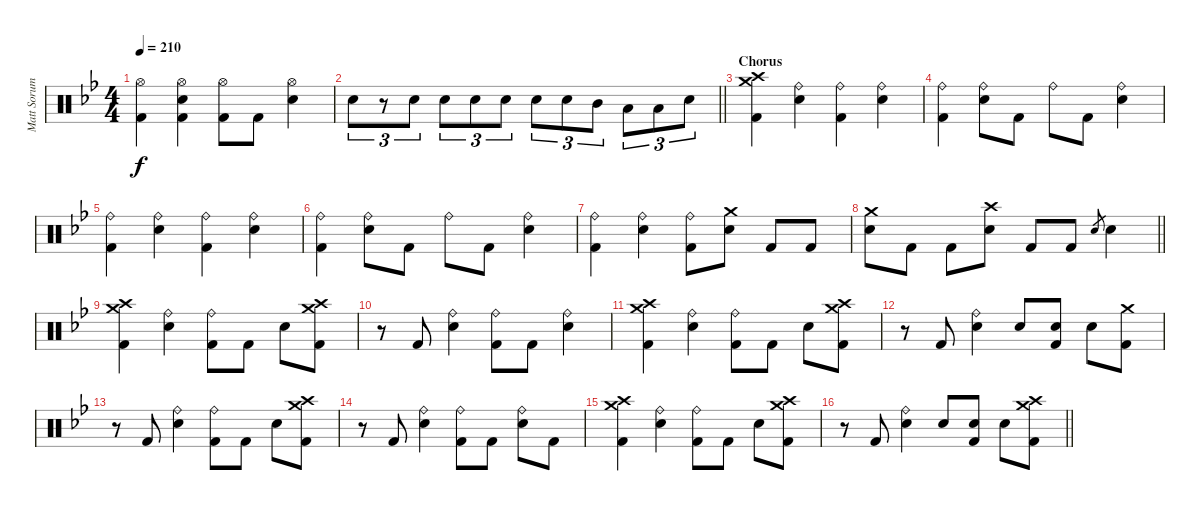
\track ("Matt Sorum - Drums" "Matt Sorum") {instrument percussion}
\staff {score}
\articulation defaults
\ts (4 4)
\tempo 210
\clef neutral
\ks bb
("Hi-Hat (open)" "Kick (hit) 2").4{dy f} ("Hi-Hat (open)" "Snare (hit) 2" "Kick (hit) 2").4 ("Hi-Hat (open)" "Kick (hit) 2").8 "Kick (hit) 2".8 ("Hi-Hat (open)" "Snare (hit) 2").4 |
\barLineRight lightlight "Snare (hit) 2".8{tu (3 2)}
r.8{tu (3 2)} "Snare (hit) 2".8{tu (3 2)} "Snare (hit) 2".8{tu (3 2)} "Snare (hit) 2".8{tu (3 2)} "Snare (hit) 2".8{tu (3 2)} "Snare (hit) 2".8{tu (3 2)} "Snare (hit) 2".8{tu (3 2)} "Mid Tom (hit)".8{tu (3 2)} "Low Tom (hit)".8{tu (3 2)} "Low Tom (hit)".8{tu (3 2)} "Snare (hit) 2".8{tu (3 2)} |
\section ("" "Chorus")
("Crash medium (hit)" "Crash high (hit)" "Kick (hit) 2").4 ("Ride (bell)" "Snare (hit) 2").4 ("Ride (bell)" "Kick (hit) 2").4 ("Ride (bell)" "Snare (hit) 2").4 |
("Ride (bell)" "Kick (hit) 2").4 ("Ride (bell)" "Snare (hit) 2").8 "Kick (hit) 2".8 "Ride (bell)".8 "Kick (hit) 2".8 ("Ride (bell)" "Snare (hit) 2").4 |
("Ride (bell)" "Kick (hit) 2").4 ("Ride (bell)" "Snare (hit) 2").4 ("Ride (bell)" "Kick (hit) 2").4 ("Ride (bell)" "Snare (hit) 2").4 |
("Ride (bell)" "Kick (hit) 2").4 ("Ride (bell)" "Snare (hit) 2").8 "Kick (hit) 2".8 "Ride (bell)".8 "Kick (hit) 2".8 ("Ride (bell)" "Snare (hit) 2").4 |
("Ride (bell)" "Kick (hit) 2").4 ("Ride (bell)" "Snare (hit) 2").4 ("Ride (bell)" "Kick (hit) 2").8 ("Crash medium (hit)" "Snare (hit) 2").8 "Kick (hit) 2".8 "Kick (hit) 2".8 |
\barLineRight lightlight
("Crash medium (hit)" "Snare (hit) 2").8 "Kick (hit) 2".8 "Kick (hit) 2".8 ("Crash high (hit)" "Snare (hit) 2").8 "Kick (hit) 2".8 "Kick (hit) 2".8 "Snare (hit) 2".8{gr} "Snare (hit) 2".4 |
("Crash medium (hit)" "Crash high (hit)" "Kick (hit) 2").4 ("Ride (bell)" "Snare (hit) 2").4 ("Ride (bell)" "Kick (hit) 2").8 "Kick (hit) 2".8 "Snare (hit) 2".8 ("Crash medium (hit)" "Crash high (hit)" "Kick (hit) 2").8 |
r.8 "Kick (hit) 2".8 ("Ride (bell)" "Snare (hit) 2").4 ("Ride (bell)" "Kick (hit) 2").8 "Kick (hit) 2".8 ("Ride (bell)" "Snare (hit) 2").4 |
("Crash medium (hit)" "Crash high (hit)" "Kick (hit) 2").4 ("Ride (bell)" "Snare (hit) 2").4 ("Ride (bell)" "Kick (hit) 2").8 "Kick (hit) 2".8 "Snare (hit) 2".8 ("Crash medium (hit)" "Crash high (hit)" "Kick (hit) 2").8 |
r.8 "Kick (hit) 2".8 ("Ride (bell)" "Snare (hit) 2").4 "Snare (hit) 2".8 ("Snare (hit) 2" "Kick (hit) 2").8 "Snare (hit) 2".8 ("Crash medium (hit)" "Kick (hit) 2").8 |
r.8 "Kick (hit) 2".8 ("Ride (bell)" "Snare (hit) 2").4 ("Ride (bell)" "Kick (hit) 2").8 "Kick (hit) 2".8 "Snare (hit) 2".8 ("Crash medium (hit)" "Crash high (hit)" "Kick (hit) 2").8 |
r.8 "Kick (hit) 2".8 ("Ride (bell)" "Snare (hit) 2").4 ("Ride (bell)" "Kick (hit) 2").8 "Kick (hit) 2".8 ("Ride (bell)" "Snare (hit) 2").8 "Kick (hit) 2".8 |
("Crash medium (hit)" "Crash high (hit)" "Kick (hit) 2").4 ("Ride (bell)" "Snare (hit) 2").4 ("Ride (bell)" "Kick (hit) 2").8 "Kick (hit) 2".8 "Snare (hit) 2".8 ("Crash medium (hit)" "Crash high (hit)" "Kick (hit) 2").8 |
\barLineRight lightlight
r.8 "Kick (hit) 2".8 ("Ride (bell)" "Snare (hit) 2").4 "Snare (hit) 2".8 ("Snare (hit) 2" "Kick (hit) 2").8 "Snare (hit) 2".8 ("Crash medium (hit)" "Crash high (hit)" "Kick (hit) 2").8
